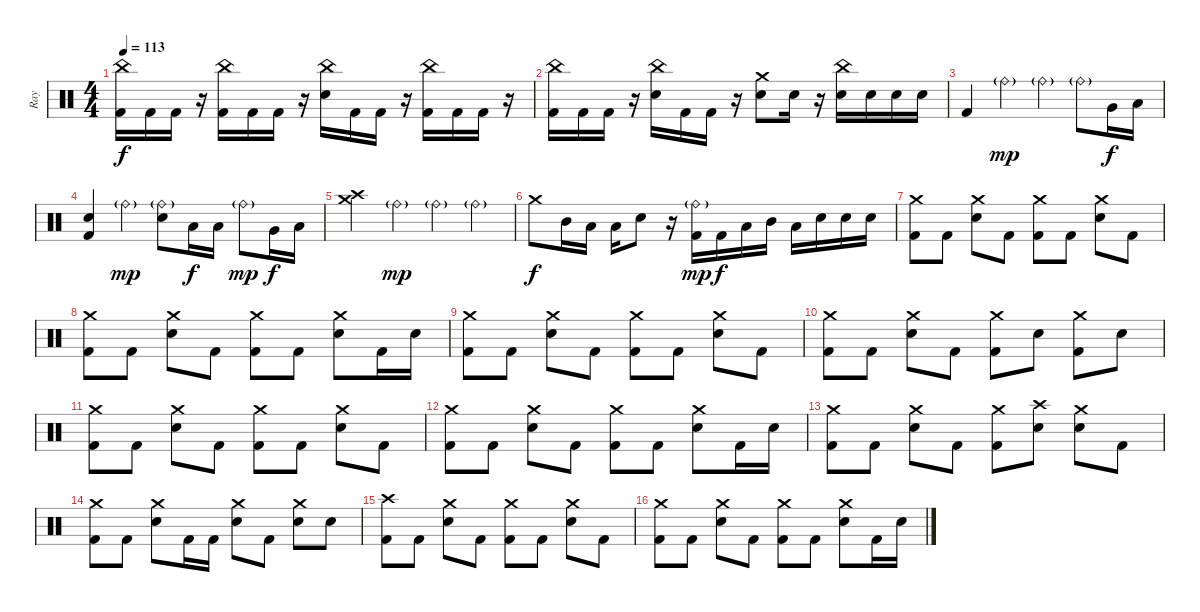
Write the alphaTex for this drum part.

\track ("Ray" "Ray") {instrument percussion}
\staff {score}
\articulation defaults
\ts (4 4)
\tempo 113
\clef neutral
\ks c
("China (hit)" "Kick (hit) 2").16{dy f} "Kick (hit) 2".16 "Kick (hit) 2".16 r.16 ("China (hit)" "Kick (hit) 2").16 "Kick (hit) 2".16 "Kick (hit) 2".16 r.16 ("China (hit)" "Electric Snare (hit)").16 "Kick (hit) 2".16 "Kick (hit) 2".16 r.16 ("China (hit)" "Kick (hit) 2").16 "Kick (hit) 2".16 "Kick (hit) 2".16 r.16 |
("China (hit)" "Kick (hit) 2").16 "Kick (hit) 2".16 "Kick (hit) 2".16 r.16 ("China (hit)" "Electric Snare (hit)").16 "Kick (hit) 2".16 "Kick (hit) 2".16 r.16 ("Crash medium (hit)" "Electric Snare (hit)").8 "Electric Snare (hit)".16 r.16 ("China (hit)" "Electric Snare (hit)").16 "Electric Snare (hit)".16 "Electric Snare (hit)".16 "Electric Snare (hit)".16 |
"Kick (hit) 2".4 "Ride (bell)"{g}.4{dy mp} "Ride (bell)"{g}.4 "Ride (bell)"{g}.8 "Very Low Tom (hit)".16{dy f} "Low Floor Tom (hit)".16 |
("Electric Snare (hit)" "Kick (hit) 2").4 "Ride (bell)"{g}.4{dy mp} ("Ride (bell)"{g} "Electric Snare (hit)").8 "Low Tom (hit)".16{dy f} "Low Tom (hit)".16 "Ride (bell)"{g}.8{dy mp} "Very Low Tom (hit)".16{dy f} "Low Floor Tom (hit)".16 |
("Crash high (hit)" "Crash medium (hit)").4 "Ride (bell)"{g}.4{dy mp} "Ride (bell)"{g}.4 "Ride (bell)"{g}.4 |
"Crash medium (hit)".8{dy f} "Mid Tom (hit)".16 "Low Tom (hit)".16 "Low Tom (hit)".16 "Electric Snare (hit)".8 r.16 ("Ride (bell)"{g} "Kick (hit) 2").16{dy mp} "Kick (hit) 2".16{dy f} "Low Tom (hit)".16 "Mid Tom (hit)".16 "Low Tom (hit)".16 "Electric Snare (hit)".16 "Electric Snare (hit)".16 "Electric Snare (hit)".16 |
("Crash medium (hit)" "Kick (hit) 2").8 "Kick (hit) 2".8 ("Crash medium (hit)" "Electric Snare (hit)").8 "Kick (hit) 2".8 ("Crash medium (hit)" "Kick (hit) 2").8 "Kick (hit) 2".8 ("Crash medium (hit)" "Electric Snare (hit)").8 "Kick (hit) 2".8 |
("Crash medium (hit)" "Kick (hit) 2").8 "Kick (hit) 2".8 ("Crash medium (hit)" "Electric Snare (hit)").8 "Kick (hit) 2".8 ("Crash medium (hit)" "Kick (hit) 2").8 "Kick (hit) 2".8 ("Crash medium (hit)" "Electric Snare (hit)").8 "Kick (hit) 2".16 "Electric Snare (hit)".16 |
("Crash medium (hit)" "Kick (hit) 2").8 "Kick (hit) 2".8 ("Crash medium (hit)" "Electric Snare (hit)").8 "Kick (hit) 2".8 ("Crash medium (hit)" "Kick (hit) 2").8 "Kick (hit) 2".8 ("Crash medium (hit)" "Electric Snare (hit)").8 "Kick (hit) 2".8 |
("Crash medium (hit)" "Kick (hit) 2").8 "Kick (hit) 2".8 ("Crash medium (hit)" "Electric Snare (hit)").8 "Kick (hit) 2".8 ("Crash medium (hit)" "Kick (hit) 2").8 "Electric Snare (hit)".8 ("Crash medium (hit)" "Kick (hit) 2").8 "Electric Snare (hit)".8 |
("Crash medium (hit)" "Kick (hit) 2").8 "Kick (hit) 2".8 ("Crash medium (hit)" "Electric Snare (hit)").8 "Kick (hit) 2".8 ("Crash medium (hit)" "Kick (hit) 2").8 "Kick (hit) 2".8 ("Crash medium (hit)" "Electric Snare (hit)").8 "Kick (hit) 2".8 |
("Crash medium (hit)" "Kick (hit) 2").8 "Kick (hit) 2".8 ("Crash medium (hit)" "Electric Snare (hit)").8 "Kick (hit) 2".8 ("Crash medium (hit)" "Kick (hit) 2").8 "Kick (hit) 2".8 ("Crash medium (hit)" "Electric Snare (hit)").8 "Kick (hit) 2".16 "Electric Snare (hit)".16 |
("Crash medium (hit)" "Kick (hit) 2").8 "Kick (hit) 2".8 ("Crash medium (hit)" "Electric Snare (hit)").8 "Kick (hit) 2".8 ("Crash medium (hit)" "Kick (hit) 2").8 ("Crash high (hit)" "Electric Snare (hit)").8 ("Crash medium (hit)" "Electric Snare (hit)").8 "Kick (hit) 2".8 |
("Crash medium (hit)" "Kick (hit) 2").8 "Kick (hit) 2".8 ("Crash medium (hit)" "Electric Snare (hit)").8 "Kick (hit) 2".16 "Kick (hit) 2".16 ("Crash medium (hit)" "Electric Snare (hit)").8 "Kick (hit) 2".8 ("Crash medium (hit)" "Electric Snare (hit)").8 "Electric Snare (hit)".8 |
("Crash high (hit)" "Kick (hit) 2").8 "Kick (hit) 2".8 ("Crash medium (hit)" "Electric Snare (hit)").8 "Kick (hit) 2".8 ("Crash medium (hit)" "Kick (hit) 2").8 "Kick (hit) 2".8 ("Crash medium (hit)" "Electric Snare (hit)").8 "Kick (hit) 2".8 |
("Crash medium (hit)" "Kick (hit) 2").8 "Kick (hit) 2".8 ("Crash medium (hit)" "Electric Snare (hit)").8 "Kick (hit) 2".8 ("Crash medium (hit)" "Kick (hit) 2").8 "Kick (hit) 2".8 ("Crash medium (hit)" "Electric Snare (hit)").8 "Kick (hit) 2".16 "Electric Snare (hit)".16
